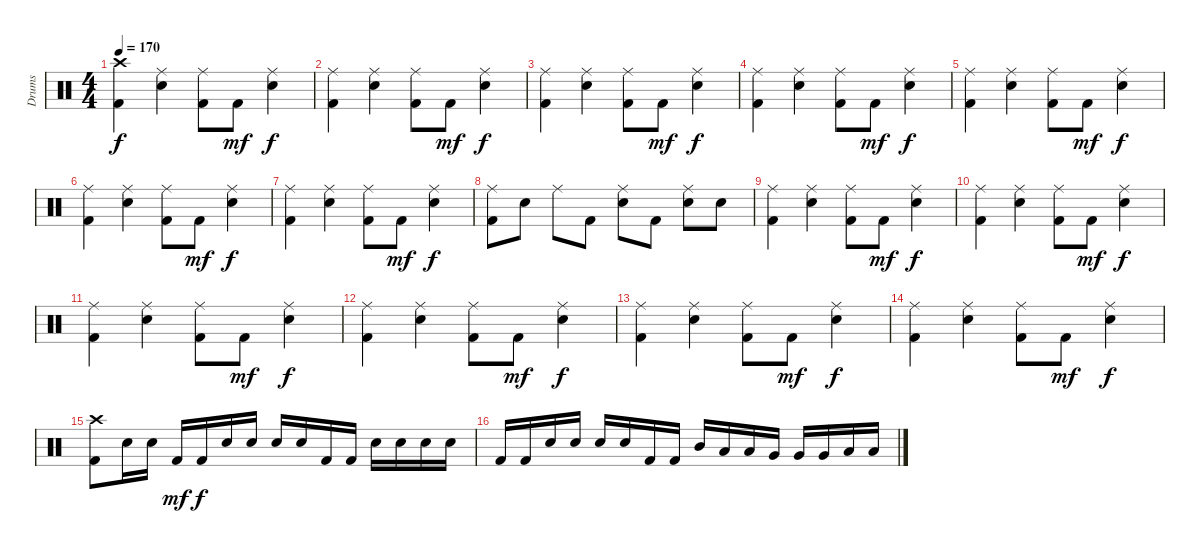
\track ("Drums" "Drums") {instrument percussion}
\staff {score}
\articulation defaults
\ts (4 4)
\tempo 170
\clef neutral
\ks c
("Crash high (hit)" "Kick (hit) 2").4{dy f} ("Ride (middle)" "Snare (hit) 2").4 ("Ride (middle)" "Kick (hit) 2").8 "Kick (hit) 2".8{dy mf} ("Ride (middle)" "Snare (hit) 2").4{dy f} |
("Ride (middle)" "Kick (hit) 2").4 ("Ride (middle)" "Snare (hit) 2").4 ("Ride (middle)" "Kick (hit) 2").8 "Kick (hit) 2".8{dy mf} ("Ride (middle)" "Snare (hit) 2").4{dy f} |
("Ride (middle)" "Kick (hit) 2").4 ("Ride (middle)" "Snare (hit) 2").4 ("Ride (middle)" "Kick (hit) 2").8 "Kick (hit) 2".8{dy mf} ("Ride (middle)" "Snare (hit) 2").4{dy f} |
("Ride (middle)" "Kick (hit) 2").4 ("Ride (middle)" "Snare (hit) 2").4 ("Ride (middle)" "Kick (hit) 2").8 "Kick (hit) 2".8{dy mf} ("Ride (middle)" "Snare (hit) 2").4{dy f} |
("Ride (middle)" "Kick (hit) 2").4 ("Ride (middle)" "Snare (hit) 2").4 ("Ride (middle)" "Kick (hit) 2").8 "Kick (hit) 2".8{dy mf} ("Ride (middle)" "Snare (hit) 2").4{dy f} |
("Ride (middle)" "Kick (hit) 2").4 ("Ride (middle)" "Snare (hit) 2").4 ("Ride (middle)" "Kick (hit) 2").8 "Kick (hit) 2".8{dy mf} ("Ride (middle)" "Snare (hit) 2").4{dy f} |
("Ride (middle)" "Kick (hit) 2").4 ("Ride (middle)" "Snare (hit) 2").4 ("Ride (middle)" "Kick (hit) 2").8 "Kick (hit) 2".8{dy mf} ("Ride (middle)" "Snare (hit) 2").4{dy f} |
("Ride (middle)" "Kick (hit) 2").8 "Snare (hit) 2".8 "Ride (middle)".8 "Kick (hit) 2".8 ("Ride (middle)" "Snare (hit) 2").8 "Kick (hit) 2".8 ("Ride (middle)" "Snare (hit) 2").8 "Snare (hit) 2".8 |
("Ride (middle)" "Kick (hit) 2").4 ("Ride (middle)" "Snare (hit) 2").4 ("Ride (middle)" "Kick (hit) 2").8 "Kick (hit) 2".8{dy mf} ("Ride (middle)" "Snare (hit) 2").4{dy f} |
("Ride (middle)" "Kick (hit) 2").4 ("Ride (middle)" "Snare (hit) 2").4 ("Ride (middle)" "Kick (hit) 2").8 "Kick (hit) 2".8{dy mf} ("Ride (middle)" "Snare (hit) 2").4{dy f} |
("Ride (middle)" "Kick (hit) 2").4 ("Ride (middle)" "Snare (hit) 2").4 ("Ride (middle)" "Kick (hit) 2").8 "Kick (hit) 2".8{dy mf} ("Ride (middle)" "Snare (hit) 2").4{dy f} |
("Ride (middle)" "Kick (hit) 2").4 ("Ride (middle)" "Snare (hit) 2").4 ("Ride (middle)" "Kick (hit) 2").8 "Kick (hit) 2".8{dy mf} ("Ride (middle)" "Snare (hit) 2").4{dy f} |
("Ride (middle)" "Kick (hit) 2").4 ("Ride (middle)" "Snare (hit) 2").4 ("Ride (middle)" "Kick (hit) 2").8 "Kick (hit) 2".8{dy mf} ("Ride (middle)" "Snare (hit) 2").4{dy f} |
("Ride (middle)" "Kick (hit) 2").4 ("Ride (middle)" "Snare (hit) 2").4 ("Ride (middle)" "Kick (hit) 2").8 "Kick (hit) 2".8{dy mf} ("Ride (middle)" "Snare (hit) 2").4{dy f} |
("Crash high (hit)" "Kick (hit) 2").8 "Snare (hit) 2".16 "Snare (hit) 2".16 "Kick (hit) 2".16{dy mf} "Kick (hit) 2".16{dy f} "Snare (hit) 2".16 "Snare (hit) 2".16 "Snare (hit) 2".16 "Snare (hit) 2".16 "Kick (hit) 2".16 "Kick (hit) 2".16 "Snare (hit) 2".16 "Snare (hit) 2".16 "Snare (hit) 2".16 "Snare (hit) 2".16 |
"Kick (hit) 2".16 "Kick (hit) 2".16 "Snare (hit) 2".16 "Snare (hit) 2".16 "Snare (hit) 2".16 "Snare (hit) 2".16 "Kick (hit) 2".16 "Kick (hit) 2".16 "Mid Tom (hit)".16 "Low Tom (hit)".16 "Low Tom (hit)".16 "Very Low Tom (hit)".16 "Very Low Tom (hit)".16 "Very Low Tom (hit)".16 "Low Floor Tom (hit)".16 "Low Floor Tom (hit)".16
